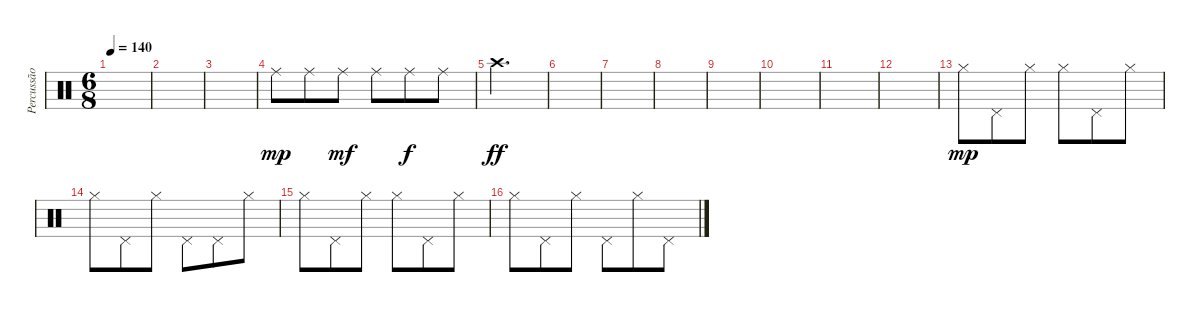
\track ("Percussão" "Percussão") {instrument percussion}
\staff {score}
\articulation defaults
\ts (6 8)
\tempo 140
\clef neutral
\ks c
|
|
|
"Ride (middle)".8{dy mp} "Ride (middle)".8 "Ride (middle)".8{dy mf} "Ride (middle)".8 "Ride (middle)".8{dy f} "Ride (middle)".8 |
"Crash high (hit)".2{d dy ff} |
|
|
|
|
|
|
|
"Hi-Hat (closed)".8{dy mp} "Pedal Hi-Hat (hit)".8 "Hi-Hat (closed)".8 "Hi-Hat (closed)".8 "Pedal Hi-Hat (hit)".8 "Hi-Hat (closed)".8 |
"Hi-Hat (closed)".8 "Pedal Hi-Hat (hit)".8 "Hi-Hat (closed)".8 "Pedal Hi-Hat (hit)".8 "Pedal Hi-Hat (hit)".8 "Hi-Hat (closed)".8 |
"Hi-Hat (closed)".8 "Pedal Hi-Hat (hit)".8 "Hi-Hat (closed)".8 "Hi-Hat (closed)".8 "Pedal Hi-Hat (hit)".8 "Hi-Hat (closed)".8 |
"Hi-Hat (closed)".8 "Pedal Hi-Hat (hit)".8 "Hi-Hat (closed)".8 "Pedal Hi-Hat (hit)".8 "Hi-Hat (closed)".8 "Pedal Hi-Hat (hit)".8
